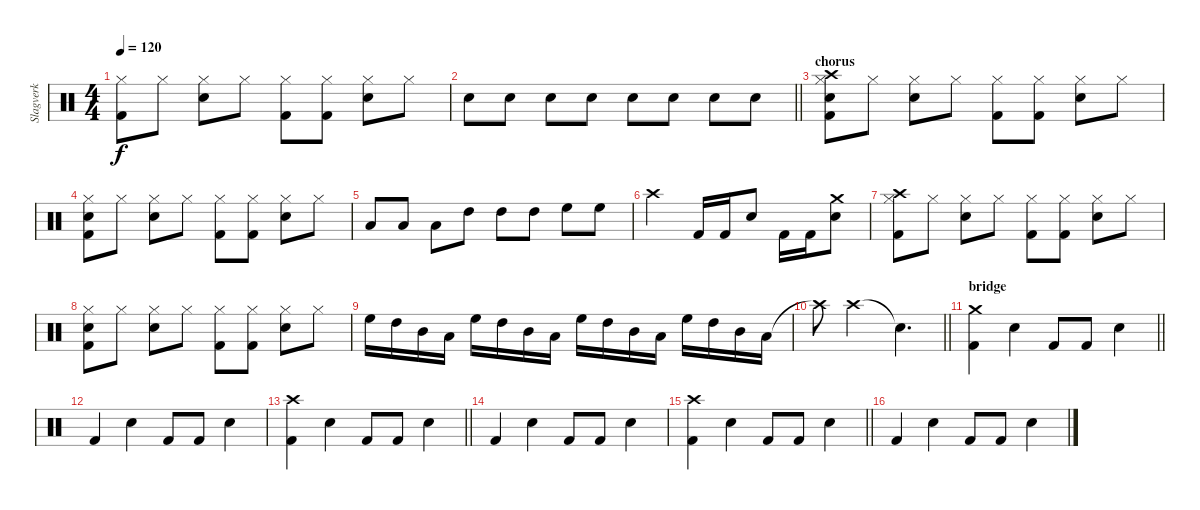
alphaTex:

\track ("Slagverk" "Slagverk") {instrument percussion}
\staff {score}
\articulation defaults
\ts (4 4)
\tempo 120
\clef neutral
\ks c
("Kick (hit) 2" "Hi-Hat (closed)").8{dy f} "Hi-Hat (closed)".8 ("Snare (hit) 2" "Hi-Hat (closed)").8 "Hi-Hat (closed)".8 ("Kick (hit) 2" "Hi-Hat (closed)").8 ("Kick (hit) 2" "Hi-Hat (closed)").8 ("Snare (hit) 2" "Hi-Hat (closed)").8 "Hi-Hat (closed)".8 |
\barLineRight lightlight "Snare (hit) 2".8 "Snare (hit) 2".8 "Snare (hit) 2".8 "Snare (hit) 2".8 "Snare (hit) 2".8 "Snare (hit) 2".8 "Snare (hit) 2".8 "Snare (hit) 2".8
|
\section ("" "chorus")
("Snare (hit) 2" "Kick (hit) 2" "Hi-Hat (closed)" "Crash high (hit)").8 "Hi-Hat (closed)".8 ("Snare (hit) 2" "Hi-Hat (closed)").8 "Hi-Hat (closed)".8 ("Kick (hit) 2" "Hi-Hat (closed)").8 ("Kick (hit) 2" "Hi-Hat (closed)").8 ("Snare (hit) 2" "Hi-Hat (closed)").8 "Hi-Hat (closed)".8 |
("Snare (hit) 2" "Kick (hit) 2" "Hi-Hat (closed)").8 "Hi-Hat (closed)".8 ("Snare (hit) 2" "Hi-Hat (closed)").8 "Hi-Hat (closed)".8 ("Kick (hit) 2" "Hi-Hat (closed)").8 ("Kick (hit) 2" "Hi-Hat (closed)").8 ("Snare (hit) 2" "Hi-Hat (closed)").8 "Hi-Hat (closed)".8 |
"Low Tom (hit)".8 "Low Tom (hit)".8 "Low Tom (hit)".8 "High Tom (hit)".8 "High Tom (hit)".8 "High Tom (hit)".8 "High Floor Tom (hit)".8 "High Floor Tom (hit)".8 |
"Crash high (hit)".2 "Kick (hit) 2".16 "Kick (hit) 2".16 "Snare (hit) 2".8 "Kick (hit) 2".16 "Kick (hit) 2".16 ("Snare (hit) 2" "Crash medium (hit)").8 |
("Kick (hit) 2" "Hi-Hat (closed)" "Crash high (hit)").8 "Hi-Hat (closed)".8 ("Snare (hit) 2" "Hi-Hat (closed)").8 "Hi-Hat (closed)".8 ("Kick (hit) 2" "Hi-Hat (closed)").8 ("Kick (hit) 2" "Hi-Hat (closed)").8 ("Snare (hit) 2" "Hi-Hat (closed)").8 "Hi-Hat (closed)".8 |
("Snare (hit) 2" "Kick (hit) 2" "Hi-Hat (closed)").8 "Hi-Hat (closed)".8 ("Snare (hit) 2" "Hi-Hat (closed)").8 "Hi-Hat (closed)".8 ("Kick (hit) 2" "Hi-Hat (closed)").8 ("Kick (hit) 2" "Hi-Hat (closed)").8 ("Snare (hit) 2" "Hi-Hat (closed)").8 "Hi-Hat (closed)".8 |
"High Floor Tom (hit)".16 "High Tom (hit)".16 "Mid Tom (hit)".16 "Low Tom (hit)".16 "High Floor Tom (hit)".16 "High Tom (hit)".16 "Mid Tom (hit)".16 "Low Tom (hit)".16 "High Floor Tom (hit)".16 "High Tom (hit)".16 "Mid Tom (hit)".16 "Low Tom (hit)".16 "High Floor Tom (hit)".16 "High Tom (hit)".16 "Mid Tom (hit)".16 "Low Tom (hit)".16 |
\barLineRight lightlight "Crash high (hit)"{t}.8 "Crash high (hit)".2 "Snare (hit)"{t}.4{d}
|
\section ("" "bridge")
\barLineRight lightlight
("Kick (hit) 2" "Crash medium (hit)").4 "Snare (hit) 2".4 "Kick (hit) 2".8 "Kick (hit) 2".8 "Snare (hit) 2".4 |
"Kick (hit) 2".4 "Snare (hit) 2".4 "Kick (hit) 2".8 "Kick (hit) 2".8 "Snare (hit) 2".4 |
\barLineRight lightlight
("Kick (hit) 2" "Crash high (hit)").4 "Snare (hit) 2".4 "Kick (hit) 2".8 "Kick (hit) 2".8 "Snare (hit) 2".4 |
"Kick (hit) 2".4 "Snare (hit) 2".4 "Kick (hit) 2".8 "Kick (hit) 2".8 "Snare (hit) 2".4 |
\barLineRight lightlight
("Kick (hit) 2" "Crash high (hit)").4 "Snare (hit) 2".4 "Kick (hit) 2".8 "Kick (hit) 2".8 "Snare (hit) 2".4 |
"Kick (hit) 2".4 "Snare (hit) 2".4 "Kick (hit) 2".8 "Kick (hit) 2".8 "Snare (hit) 2".4
